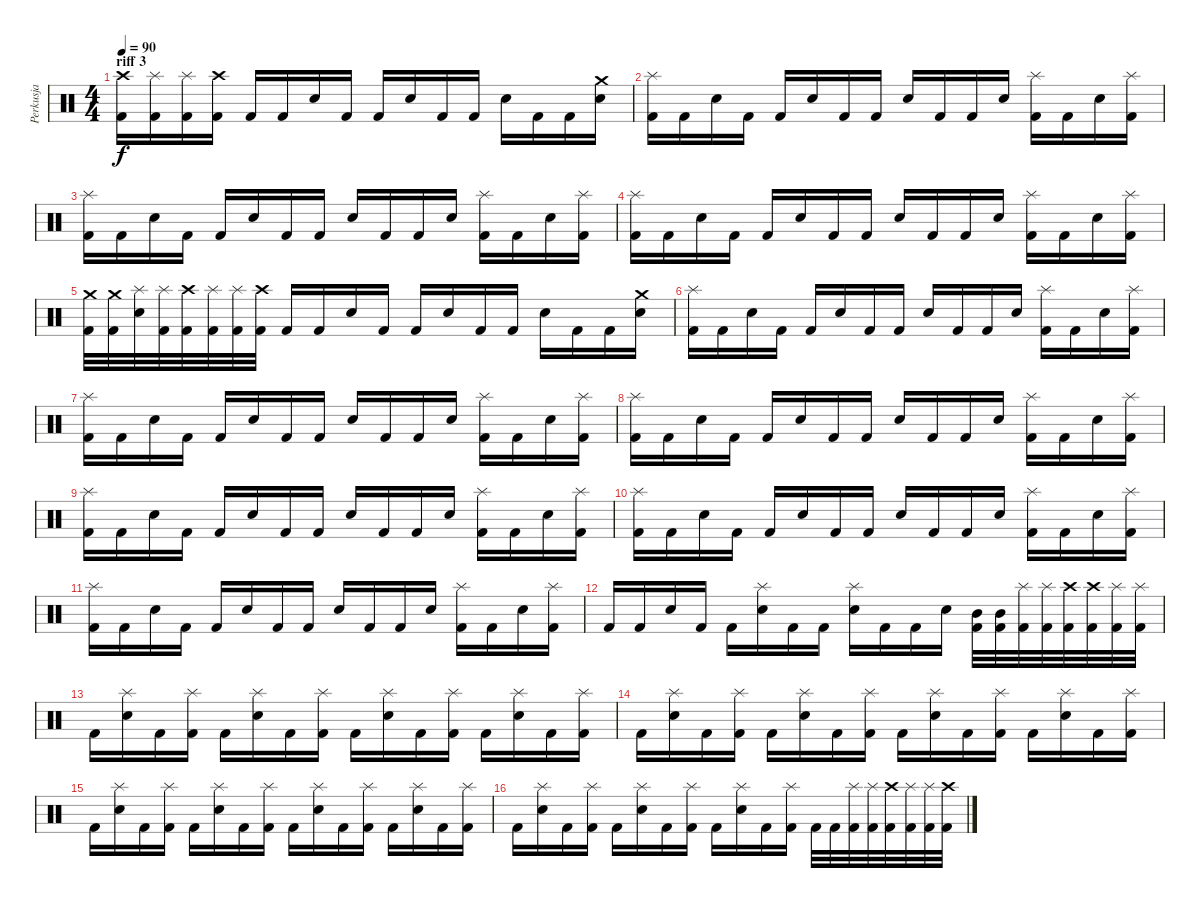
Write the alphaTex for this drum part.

\track ("Perkusja" "Perkusja") {instrument percussion}
\staff {score}
\articulation defaults
\ts (4 4)
\section ("" "riff 3")
\tempo 90
\clef neutral
\ks c
("Crash high (hit)" "Kick (hit) 2").16{dy f} ("Splash (hit)" "Kick (hit) 2").16 ("Splash (hit)" "Kick (hit) 2").16 ("Crash high (hit)" "Kick (hit) 2").16 "Kick (hit) 2".16 "Kick (hit) 2".16 "Electric Snare (hit)".16 "Kick (hit) 2".16 "Kick (hit) 2".16 "Electric Snare (hit)".16 "Kick (hit) 2".16 "Kick (hit) 2".16 "Electric Snare (hit)".16 "Kick (hit) 2".16 "Kick (hit) 2".16 ("Crash medium (hit)" "Electric Snare (hit)").16 |
("Splash (hit)" "Kick (hit) 2").16 "Kick (hit) 2".16 "Electric Snare (hit)".16 "Kick (hit) 2".16 "Kick (hit) 2".16 "Electric Snare (hit)".16 "Kick (hit) 2".16 "Kick (hit) 2".16 "Electric Snare (hit)".16 "Kick (hit) 2".16 "Kick (hit) 2".16 "Electric Snare (hit)".16 ("Splash (hit)" "Kick (hit) 2").16 "Kick (hit) 2".16 "Electric Snare (hit)".16 ("Splash (hit)" "Kick (hit) 2").16 |
("Splash (hit)" "Kick (hit) 2").16 "Kick (hit) 2".16 "Electric Snare (hit)".16 "Kick (hit) 2".16 "Kick (hit) 2".16 "Electric Snare (hit)".16 "Kick (hit) 2".16 "Kick (hit) 2".16 "Electric Snare (hit)".16 "Kick (hit) 2".16 "Kick (hit) 2".16 "Electric Snare (hit)".16 ("Splash (hit)" "Kick (hit) 2").16 "Kick (hit) 2".16 "Electric Snare (hit)".16 ("Splash (hit)" "Kick (hit) 2").16 |
("Splash (hit)" "Kick (hit) 2").16 "Kick (hit) 2".16 "Electric Snare (hit)".16 "Kick (hit) 2".16 "Kick (hit) 2".16 "Electric Snare (hit)".16 "Kick (hit) 2".16 "Kick (hit) 2".16 "Electric Snare (hit)".16 "Kick (hit) 2".16 "Kick (hit) 2".16 "Electric Snare (hit)".16 ("Splash (hit)" "Kick (hit) 2").16 "Kick (hit) 2".16 "Electric Snare (hit)".16 ("Splash (hit)" "Kick (hit) 2").16 |
("Crash medium (hit)" "Kick (hit) 2").32 ("Crash medium (hit)" "Kick (hit) 2").32 ("Splash (hit)" "Snare (hit)").32 ("Splash (hit)" "Kick (hit) 2").32 ("Crash high (hit)" "Kick (hit) 2").32 ("Splash (hit)" "Kick (hit) 2").32 ("Splash (hit)" "Kick (hit) 2").32 ("Crash high (hit)" "Kick (hit) 2").32 "Kick (hit) 2".16 "Kick (hit) 2".16 "Electric Snare (hit)".16 "Kick (hit) 2".16 "Kick (hit) 2".16 "Electric Snare (hit)".16 "Kick (hit) 2".16 "Kick (hit) 2".16 "Electric Snare (hit)".16 "Kick (hit) 2".16 "Kick (hit) 2".16 ("Crash medium (hit)" "Electric Snare (hit)").16 |
("Splash (hit)" "Kick (hit) 2").16 "Kick (hit) 2".16 "Electric Snare (hit)".16 "Kick (hit) 2".16 "Kick (hit) 2".16 "Electric Snare (hit)".16 "Kick (hit) 2".16 "Kick (hit) 2".16 "Electric Snare (hit)".16 "Kick (hit) 2".16 "Kick (hit) 2".16 "Electric Snare (hit)".16 ("Splash (hit)" "Kick (hit) 2").16 "Kick (hit) 2".16 "Electric Snare (hit)".16 ("Splash (hit)" "Kick (hit) 2").16 |
("Splash (hit)" "Kick (hit) 2").16 "Kick (hit) 2".16 "Electric Snare (hit)".16 "Kick (hit) 2".16 "Kick (hit) 2".16 "Electric Snare (hit)".16 "Kick (hit) 2".16 "Kick (hit) 2".16 "Electric Snare (hit)".16 "Kick (hit) 2".16 "Kick (hit) 2".16 "Electric Snare (hit)".16 ("Splash (hit)" "Kick (hit) 2").16 "Kick (hit) 2".16 "Electric Snare (hit)".16 ("Splash (hit)" "Kick (hit) 2").16 |
("Splash (hit)" "Kick (hit) 2").16 "Kick (hit) 2".16 "Electric Snare (hit)".16 "Kick (hit) 2".16 "Kick (hit) 2".16 "Electric Snare (hit)".16 "Kick (hit) 2".16 "Kick (hit) 2".16 "Electric Snare (hit)".16 "Kick (hit) 2".16 "Kick (hit) 2".16 "Electric Snare (hit)".16 ("Splash (hit)" "Kick (hit) 2").16 "Kick (hit) 2".16 "Electric Snare (hit)".16 ("Splash (hit)" "Kick (hit) 2").16 |
("Splash (hit)" "Kick (hit) 2").16 "Kick (hit) 2".16 "Electric Snare (hit)".16 "Kick (hit) 2".16 "Kick (hit) 2".16 "Electric Snare (hit)".16 "Kick (hit) 2".16 "Kick (hit) 2".16 "Electric Snare (hit)".16 "Kick (hit) 2".16 "Kick (hit) 2".16 "Electric Snare (hit)".16 ("Splash (hit)" "Kick (hit) 2").16 "Kick (hit) 2".16 "Electric Snare (hit)".16 ("Splash (hit)" "Kick (hit) 2").16 |
("Splash (hit)" "Kick (hit) 2").16 "Kick (hit) 2".16 "Electric Snare (hit)".16 "Kick (hit) 2".16 "Kick (hit) 2".16 "Electric Snare (hit)".16 "Kick (hit) 2".16 "Kick (hit) 2".16 "Electric Snare (hit)".16 "Kick (hit) 2".16 "Kick (hit) 2".16 "Electric Snare (hit)".16 ("Splash (hit)" "Kick (hit) 2").16 "Kick (hit) 2".16 "Electric Snare (hit)".16 ("Splash (hit)" "Kick (hit) 2").16 |
("Splash (hit)" "Kick (hit) 2").16 "Kick (hit) 2".16 "Electric Snare (hit)".16 "Kick (hit) 2".16 "Kick (hit) 2".16 "Electric Snare (hit)".16 "Kick (hit) 2".16 "Kick (hit) 2".16 "Electric Snare (hit)".16 "Kick (hit) 2".16 "Kick (hit) 2".16 "Electric Snare (hit)".16 ("Splash (hit)" "Kick (hit) 2").16 "Kick (hit) 2".16 "Electric Snare (hit)".16 ("Splash (hit)" "Kick (hit) 2").16 |
"Kick (hit) 2".16 "Kick (hit) 2".16 "Electric Snare (hit)".16 "Kick (hit) 2".16 "Kick (hit) 2".16 ("Splash (hit)" "Electric Snare (hit)").16 "Kick (hit) 2".16 "Kick (hit) 2".16 ("Splash (hit)" "Electric Snare (hit)").16 "Kick (hit) 2".16 "Kick (hit) 2".16 "Electric Snare (hit)".16 ("Mid Tom (hit)" "Kick (hit) 2").32 ("Mid Tom (hit)" "Kick (hit) 2").32 ("Splash (hit)" "Kick (hit) 2").32 ("Splash (hit)" "Kick (hit) 2").32 ("Crash high (hit)" "Kick (hit) 2").32 ("Crash high (hit)" "Kick (hit) 2").32 ("Splash (hit)" "Kick (hit) 2").32 ("Splash (hit)" "Kick (hit) 2").32 |
"Kick (hit) 2".16 ("Splash (hit)" "Snare (hit) 2").16 "Kick (hit) 2".16 ("Splash (hit)" "Kick (hit) 2").16 "Kick (hit) 2".16 ("Splash (hit)" "Snare (hit) 2").16 "Kick (hit) 2".16 ("Splash (hit)" "Kick (hit) 2").16 "Kick (hit) 2".16 ("Splash (hit)" "Snare (hit) 2").16 "Kick (hit) 2".16 ("Splash (hit)" "Kick (hit) 2").16 "Kick (hit) 2".16 ("Splash (hit)" "Snare (hit) 2").16 "Kick (hit) 2".16 ("Splash (hit)" "Kick (hit) 2").16 |
"Kick (hit) 2".16 ("Splash (hit)" "Snare (hit) 2").16 "Kick (hit) 2".16 ("Splash (hit)" "Kick (hit) 2").16 "Kick (hit) 2".16 ("Splash (hit)" "Snare (hit) 2").16 "Kick (hit) 2".16 ("Splash (hit)" "Kick (hit) 2").16 "Kick (hit) 2".16 ("Splash (hit)" "Snare (hit) 2").16 "Kick (hit) 2".16 ("Splash (hit)" "Kick (hit) 2").16 "Kick (hit) 2".16 ("Splash (hit)" "Snare (hit) 2").16 "Kick (hit) 2".16 ("Splash (hit)" "Kick (hit) 2").16 |
"Kick (hit) 2".16 ("Splash (hit)" "Snare (hit) 2").16 "Kick (hit) 2".16 ("Splash (hit)" "Kick (hit) 2").16 "Kick (hit) 2".16 ("Splash (hit)" "Snare (hit) 2").16 "Kick (hit) 2".16 ("Splash (hit)" "Kick (hit) 2").16 "Kick (hit) 2".16 ("Splash (hit)" "Snare (hit) 2").16 "Kick (hit) 2".16 ("Splash (hit)" "Kick (hit) 2").16 "Kick (hit) 2".16 ("Splash (hit)" "Snare (hit) 2").16 "Kick (hit) 2".16 ("Splash (hit)" "Kick (hit) 2").16 |
"Kick (hit) 2".16 ("Splash (hit)" "Snare (hit) 2").16 "Kick (hit) 2".16 ("Splash (hit)" "Kick (hit) 2").16 "Kick (hit) 2".16 ("Splash (hit)" "Snare (hit) 2").16 "Kick (hit) 2".16 ("Splash (hit)" "Kick (hit) 2").16 "Kick (hit) 2".16 ("Splash (hit)" "Snare (hit) 2").16 "Kick (hit) 2".16 ("Splash (hit)" "Kick (hit) 2").16 "Kick (hit) 2".32 "Kick (hit) 2".32 ("Splash (hit)" "Kick (hit) 2").32 ("Splash (hit)" "Kick (hit) 2").32 ("Crash high (hit)" "Kick (hit) 2").32 ("Splash (hit)" "Kick (hit) 2").32 ("Splash (hit)" "Kick (hit) 2").32 ("Crash high (hit)" "Kick (hit) 2").32
